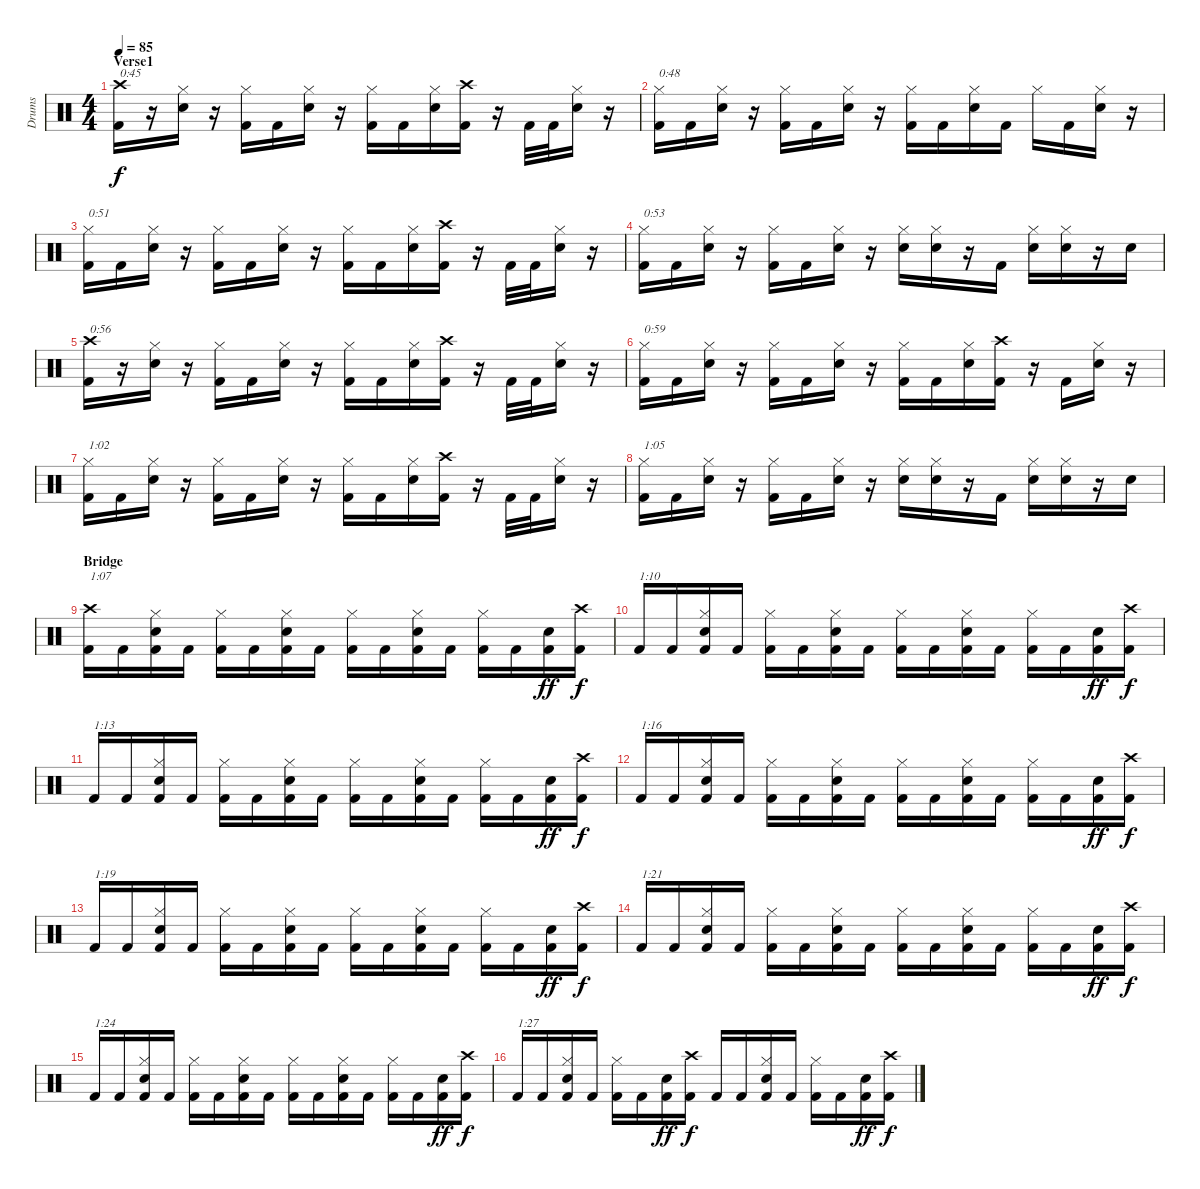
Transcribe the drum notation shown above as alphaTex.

\track ("Drums" "Drums") {instrument percussion}
\staff {score}
\articulation defaults
\ts (4 4)
\section ("" "Verse1")
\tempo 85
\clef neutral
\ks c
("Crash high (hit)" "Kick (hit) 2").16{txt "0:45" dy f} r.16 ("Hi-Hat (closed)" "Snare (hit) 2").16 r.16 ("Hi-Hat (closed)" "Kick (hit) 2").16 "Kick (hit) 2".16 ("Hi-Hat (closed)" "Snare (hit) 2").16 r.16 ("Hi-Hat (closed)" "Kick (hit) 2").16 "Kick (hit) 2".16 ("Hi-Hat (closed)" "Snare (hit) 2").16 ("Crash high (hit)" "Kick (hit) 2").16 r.16 "Kick (hit) 2".32 "Kick (hit) 2".32 ("Hi-Hat (closed)" "Snare (hit) 2").16 r.16 |
("Hi-Hat (closed)" "Kick (hit) 2").16{txt "0:48"} "Kick (hit) 2".16 ("Hi-Hat (closed)" "Snare (hit) 2").16 r.16 ("Hi-Hat (closed)" "Kick (hit) 2").16 "Kick (hit) 2".16 ("Hi-Hat (closed)" "Snare (hit) 2").16 r.16 ("Hi-Hat (closed)" "Kick (hit) 2").16 "Kick (hit) 2".16 ("Hi-Hat (closed)" "Snare (hit) 2").16 "Kick (hit) 2".16 "Hi-Hat (closed)".16 "Kick (hit) 2".16 ("Hi-Hat (closed)" "Snare (hit) 2").16 r.16 |
("Hi-Hat (closed)" "Kick (hit) 2").16{txt "0:51"} "Kick (hit) 2".16 ("Hi-Hat (closed)" "Snare (hit) 2").16 r.16 ("Hi-Hat (closed)" "Kick (hit) 2").16 "Kick (hit) 2".16 ("Hi-Hat (closed)" "Snare (hit) 2").16 r.16 ("Hi-Hat (closed)" "Kick (hit) 2").16 "Kick (hit) 2".16 ("Hi-Hat (closed)" "Snare (hit) 2").16 ("Crash high (hit)" "Kick (hit) 2").16 r.16 "Kick (hit) 2".32 "Kick (hit) 2".32 ("Hi-Hat (closed)" "Snare (hit) 2").16 r.16 |
("Hi-Hat (closed)" "Kick (hit) 2").16{txt "0:53"} "Kick (hit) 2".16 ("Hi-Hat (closed)" "Snare (hit) 2").16 r.16 ("Hi-Hat (closed)" "Kick (hit) 2").16 "Kick (hit) 2".16 ("Hi-Hat (closed)" "Snare (hit) 2").16 r.16 ("Hi-Hat (closed)" "Snare (hit) 2").16 ("Hi-Hat (closed)" "Snare (hit) 2").16 r.16 "Kick (hit) 2".16 ("Hi-Hat (closed)" "Snare (hit) 2").16 ("Hi-Hat (closed)" "Snare (hit) 2").16 r.16 "Snare (hit) 2".16 |
("Crash high (hit)" "Kick (hit) 2").16{txt "0:56"} r.16 ("Hi-Hat (closed)" "Snare (hit) 2").16 r.16 ("Hi-Hat (closed)" "Kick (hit) 2").16 "Kick (hit) 2".16 ("Hi-Hat (closed)" "Snare (hit) 2").16 r.16 ("Hi-Hat (closed)" "Kick (hit) 2").16 "Kick (hit) 2".16 ("Hi-Hat (closed)" "Snare (hit) 2").16 ("Crash high (hit)" "Kick (hit) 2").16 r.16 "Kick (hit) 2".32 "Kick (hit) 2".32 ("Hi-Hat (closed)" "Snare (hit) 2").16 r.16 |
("Hi-Hat (closed)" "Kick (hit) 2").16{txt "0:59"} "Kick (hit) 2".16 ("Hi-Hat (closed)" "Snare (hit) 2").16 r.16 ("Hi-Hat (closed)" "Kick (hit) 2").16 "Kick (hit) 2".16 ("Hi-Hat (closed)" "Snare (hit) 2").16 r.16 ("Hi-Hat (closed)" "Kick (hit) 2").16 "Kick (hit) 2".16 ("Hi-Hat (closed)" "Snare (hit) 2").16 ("Crash high (hit)" "Kick (hit) 2").16 r.16 "Kick (hit) 2".16 ("Hi-Hat (closed)" "Snare (hit) 2").16 r.16 |
("Hi-Hat (closed)" "Kick (hit) 2").16{txt "1:02"} "Kick (hit) 2".16 ("Hi-Hat (closed)" "Snare (hit) 2").16 r.16 ("Hi-Hat (closed)" "Kick (hit) 2").16 "Kick (hit) 2".16 ("Hi-Hat (closed)" "Snare (hit) 2").16 r.16 ("Hi-Hat (closed)" "Kick (hit) 2").16 "Kick (hit) 2".16 ("Hi-Hat (closed)" "Snare (hit) 2").16 ("Crash high (hit)" "Kick (hit) 2").16 r.16 "Kick (hit) 2".32 "Kick (hit) 2".32 ("Hi-Hat (closed)" "Snare (hit) 2").16 r.16 |
("Hi-Hat (closed)" "Kick (hit) 2").16{txt "1:05"} "Kick (hit) 2".16 ("Hi-Hat (closed)" "Snare (hit) 2").16 r.16 ("Hi-Hat (closed)" "Kick (hit) 2").16 "Kick (hit) 2".16 ("Hi-Hat (closed)" "Snare (hit) 2").16 r.16 ("Hi-Hat (closed)" "Snare (hit) 2").16 ("Hi-Hat (closed)" "Snare (hit) 2").16 r.16 "Kick (hit) 2".16 ("Hi-Hat (closed)" "Snare (hit) 2").16 ("Hi-Hat (closed)" "Snare (hit) 2").16 r.16 "Snare (hit) 2".16 |
\section ("" "Bridge")
("Crash high (hit)" "Kick (hit) 2").16{txt "1:07"} "Kick (hit) 2".16 ("Hi-Hat (closed)" "Snare (hit) 2" "Kick (hit) 2").16 "Kick (hit) 2".16 ("Hi-Hat (closed)" "Kick (hit) 2").16 "Kick (hit) 2".16 ("Hi-Hat (closed)" "Snare (hit) 2" "Kick (hit) 2").16 "Kick (hit) 2".16 ("Hi-Hat (closed)" "Kick (hit) 2").16 "Kick (hit) 2".16 ("Hi-Hat (closed)" "Snare (hit) 2" "Kick (hit) 2").16 "Kick (hit) 2".16 ("Hi-Hat (closed)" "Kick (hit) 2").16 "Kick (hit) 2".16 ("Snare (hit) 2" "Kick (hit) 2").16{dy ff} ("Crash high (hit)" "Kick (hit) 2").16{dy f} |
"Kick (hit) 2".16{txt "1:10"} "Kick (hit) 2".16 ("Hi-Hat (closed)" "Snare (hit) 2" "Kick (hit) 2").16 "Kick (hit) 2".16 ("Hi-Hat (closed)" "Kick (hit) 2").16 "Kick (hit) 2".16 ("Hi-Hat (closed)" "Snare (hit) 2" "Kick (hit) 2").16 "Kick (hit) 2".16 ("Hi-Hat (closed)" "Kick (hit) 2").16 "Kick (hit) 2".16 ("Hi-Hat (closed)" "Snare (hit) 2" "Kick (hit) 2").16 "Kick (hit) 2".16 ("Hi-Hat (closed)" "Kick (hit) 2").16 "Kick (hit) 2".16 ("Snare (hit) 2" "Kick (hit) 2").16{dy ff} ("Crash high (hit)" "Kick (hit) 2").16{dy f} |
"Kick (hit) 2".16{txt "1:13"} "Kick (hit) 2".16 ("Hi-Hat (closed)" "Snare (hit) 2" "Kick (hit) 2").16 "Kick (hit) 2".16 ("Hi-Hat (closed)" "Kick (hit) 2").16 "Kick (hit) 2".16 ("Hi-Hat (closed)" "Snare (hit) 2" "Kick (hit) 2").16 "Kick (hit) 2".16 ("Hi-Hat (closed)" "Kick (hit) 2").16 "Kick (hit) 2".16 ("Hi-Hat (closed)" "Snare (hit) 2" "Kick (hit) 2").16 "Kick (hit) 2".16 ("Hi-Hat (closed)" "Kick (hit) 2").16 "Kick (hit) 2".16 ("Snare (hit) 2" "Kick (hit) 2").16{dy ff} ("Crash high (hit)" "Kick (hit) 2").16{dy f} |
"Kick (hit) 2".16{txt "1:16"} "Kick (hit) 2".16 ("Hi-Hat (closed)" "Snare (hit) 2" "Kick (hit) 2").16 "Kick (hit) 2".16 ("Hi-Hat (closed)" "Kick (hit) 2").16 "Kick (hit) 2".16 ("Hi-Hat (closed)" "Snare (hit) 2" "Kick (hit) 2").16 "Kick (hit) 2".16 ("Hi-Hat (closed)" "Kick (hit) 2").16 "Kick (hit) 2".16 ("Hi-Hat (closed)" "Snare (hit) 2" "Kick (hit) 2").16 "Kick (hit) 2".16 ("Hi-Hat (closed)" "Kick (hit) 2").16 "Kick (hit) 2".16 ("Snare (hit) 2" "Kick (hit) 2").16{dy ff} ("Crash high (hit)" "Kick (hit) 2").16{dy f} |
"Kick (hit) 2".16{txt "1:19"} "Kick (hit) 2".16 ("Hi-Hat (closed)" "Snare (hit) 2" "Kick (hit) 2").16 "Kick (hit) 2".16 ("Hi-Hat (closed)" "Kick (hit) 2").16 "Kick (hit) 2".16 ("Hi-Hat (closed)" "Snare (hit) 2" "Kick (hit) 2").16 "Kick (hit) 2".16 ("Hi-Hat (closed)" "Kick (hit) 2").16 "Kick (hit) 2".16 ("Hi-Hat (closed)" "Snare (hit) 2" "Kick (hit) 2").16 "Kick (hit) 2".16 ("Hi-Hat (closed)" "Kick (hit) 2").16 "Kick (hit) 2".16 ("Snare (hit) 2" "Kick (hit) 2").16{dy ff} ("Crash high (hit)" "Kick (hit) 2").16{dy f} |
"Kick (hit) 2".16{txt "1:21"} "Kick (hit) 2".16 ("Hi-Hat (closed)" "Snare (hit) 2" "Kick (hit) 2").16 "Kick (hit) 2".16 ("Hi-Hat (closed)" "Kick (hit) 2").16 "Kick (hit) 2".16 ("Hi-Hat (closed)" "Snare (hit) 2" "Kick (hit) 2").16 "Kick (hit) 2".16 ("Hi-Hat (closed)" "Kick (hit) 2").16 "Kick (hit) 2".16 ("Hi-Hat (closed)" "Snare (hit) 2" "Kick (hit) 2").16 "Kick (hit) 2".16 ("Hi-Hat (closed)" "Kick (hit) 2").16 "Kick (hit) 2".16 ("Snare (hit) 2" "Kick (hit) 2").16{dy ff} ("Crash high (hit)" "Kick (hit) 2").16{dy f} |
"Kick (hit) 2".16{txt "1:24"} "Kick (hit) 2".16 ("Hi-Hat (closed)" "Snare (hit) 2" "Kick (hit) 2").16 "Kick (hit) 2".16 ("Hi-Hat (closed)" "Kick (hit) 2").16 "Kick (hit) 2".16 ("Hi-Hat (closed)" "Snare (hit) 2" "Kick (hit) 2").16 "Kick (hit) 2".16 ("Hi-Hat (closed)" "Kick (hit) 2").16 "Kick (hit) 2".16 ("Hi-Hat (closed)" "Snare (hit) 2" "Kick (hit) 2").16 "Kick (hit) 2".16 ("Hi-Hat (closed)" "Kick (hit) 2").16 "Kick (hit) 2".16 ("Snare (hit) 2" "Kick (hit) 2").16{dy ff} ("Crash high (hit)" "Kick (hit) 2").16{dy f} |
"Kick (hit) 2".16{txt "1:27"} "Kick (hit) 2".16 ("Hi-Hat (closed)" "Snare (hit) 2" "Kick (hit) 2").16 "Kick (hit) 2".16 ("Hi-Hat (closed)" "Kick (hit) 2").16 "Kick (hit) 2".16 ("Snare (hit) 2" "Kick (hit) 2").16{dy ff} ("Crash high (hit)" "Kick (hit) 2").16{dy f} "Kick (hit) 2".16 "Kick (hit) 2".16 ("Hi-Hat (closed)" "Snare (hit) 2" "Kick (hit) 2").16 "Kick (hit) 2".16 ("Hi-Hat (closed)" "Kick (hit) 2").16 "Kick (hit) 2".16 ("Snare (hit) 2" "Kick (hit) 2").16{dy ff} ("Crash high (hit)" "Kick (hit) 2").16{dy f}
